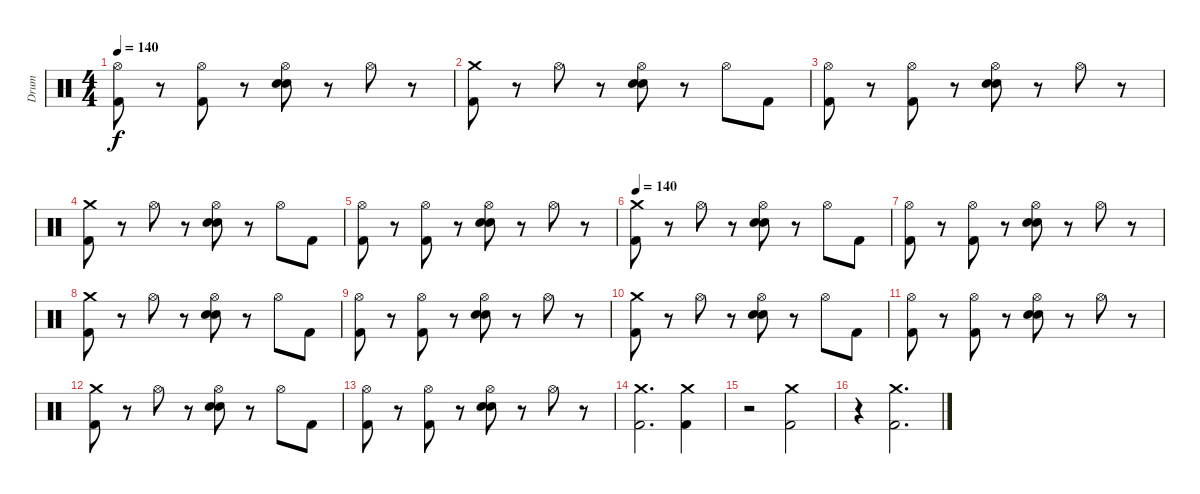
\track ("Drum" "Drum") {instrument percussion}
\staff {score}
\articulation defaults
\ts (4 4)
\tempo 140
\clef neutral
\ks c
("Hi-Hat (open)" "Kick (hit) 2").8{dy f} r.8 ("Hi-Hat (open)" "Kick (hit) 2").8 r.8 ("Hi-Hat (open)" "Snare (hit) 2" "Electric Snare (hit)").8 r.8 "Hi-Hat (open)".8 r.8 |
("Crash medium (hit)" "Kick (hit) 2").8 r.8 "Hi-Hat (open)".8 r.8 ("Hi-Hat (open)" "Snare (hit) 2" "Electric Snare (hit)").8 r.8 "Hi-Hat (open)".8 "Kick (hit) 2".8 |
("Hi-Hat (open)" "Kick (hit) 2").8 r.8 ("Hi-Hat (open)" "Kick (hit) 2").8 r.8 ("Hi-Hat (open)" "Snare (hit) 2" "Electric Snare (hit)").8 r.8 "Hi-Hat (open)".8 r.8 |
("Crash medium (hit)" "Kick (hit) 2").8 r.8 "Hi-Hat (open)".8 r.8 ("Hi-Hat (open)" "Snare (hit) 2" "Electric Snare (hit)").8 r.8 "Hi-Hat (open)".8 "Kick (hit) 2".8 |
("Hi-Hat (open)" "Kick (hit) 2").8 r.8 ("Hi-Hat (open)" "Kick (hit) 2").8 r.8 ("Hi-Hat (open)" "Snare (hit) 2" "Electric Snare (hit)").8 r.8 "Hi-Hat (open)".8 r.8 |
\tempo 135
\tempo 140
("Crash medium (hit)" "Kick (hit) 2").8 r.8 "Hi-Hat (open)".8 r.8 ("Hi-Hat (open)" "Snare (hit) 2" "Electric Snare (hit)").8 r.8 "Hi-Hat (open)".8 "Kick (hit) 2".8 |
("Hi-Hat (open)" "Kick (hit) 2").8 r.8 ("Hi-Hat (open)" "Kick (hit) 2").8 r.8 ("Hi-Hat (open)" "Snare (hit) 2" "Electric Snare (hit)").8 r.8 "Hi-Hat (open)".8 r.8 |
("Crash medium (hit)" "Kick (hit) 2").8 r.8 "Hi-Hat (open)".8 r.8 ("Hi-Hat (open)" "Snare (hit) 2" "Electric Snare (hit)").8 r.8 "Hi-Hat (open)".8 "Kick (hit) 2".8 |
("Hi-Hat (open)" "Kick (hit) 2").8 r.8 ("Hi-Hat (open)" "Kick (hit) 2").8 r.8 ("Hi-Hat (open)" "Snare (hit) 2" "Electric Snare (hit)").8 r.8 "Hi-Hat (open)".8 r.8 |
("Crash medium (hit)" "Kick (hit) 2").8 r.8 "Hi-Hat (open)".8 r.8 ("Hi-Hat (open)" "Snare (hit) 2" "Electric Snare (hit)").8 r.8 "Hi-Hat (open)".8 "Kick (hit) 2".8 |
("Hi-Hat (open)" "Kick (hit) 2").8 r.8 ("Hi-Hat (open)" "Kick (hit) 2").8 r.8 ("Hi-Hat (open)" "Snare (hit) 2" "Electric Snare (hit)").8 r.8 "Hi-Hat (open)".8 r.8 |
("Crash medium (hit)" "Kick (hit) 2").8 r.8 "Hi-Hat (open)".8 r.8 ("Hi-Hat (open)" "Snare (hit) 2" "Electric Snare (hit)").8 r.8 "Hi-Hat (open)".8 "Kick (hit) 2".8 |
("Hi-Hat (open)" "Kick (hit) 2").8 r.8 ("Hi-Hat (open)" "Kick (hit) 2").8 r.8 ("Hi-Hat (open)" "Snare (hit) 2" "Electric Snare (hit)").8 r.8 "Hi-Hat (open)".8 r.8 |
("Crash medium (hit)" "Kick (hit) 2").2{d} ("Crash medium (hit)" "Kick (hit) 2").4 |
r.2 ("Crash medium (hit)" "Kick (hit) 2").2 |
r.4 ("Crash medium (hit)" "Kick (hit) 2").2{d}
